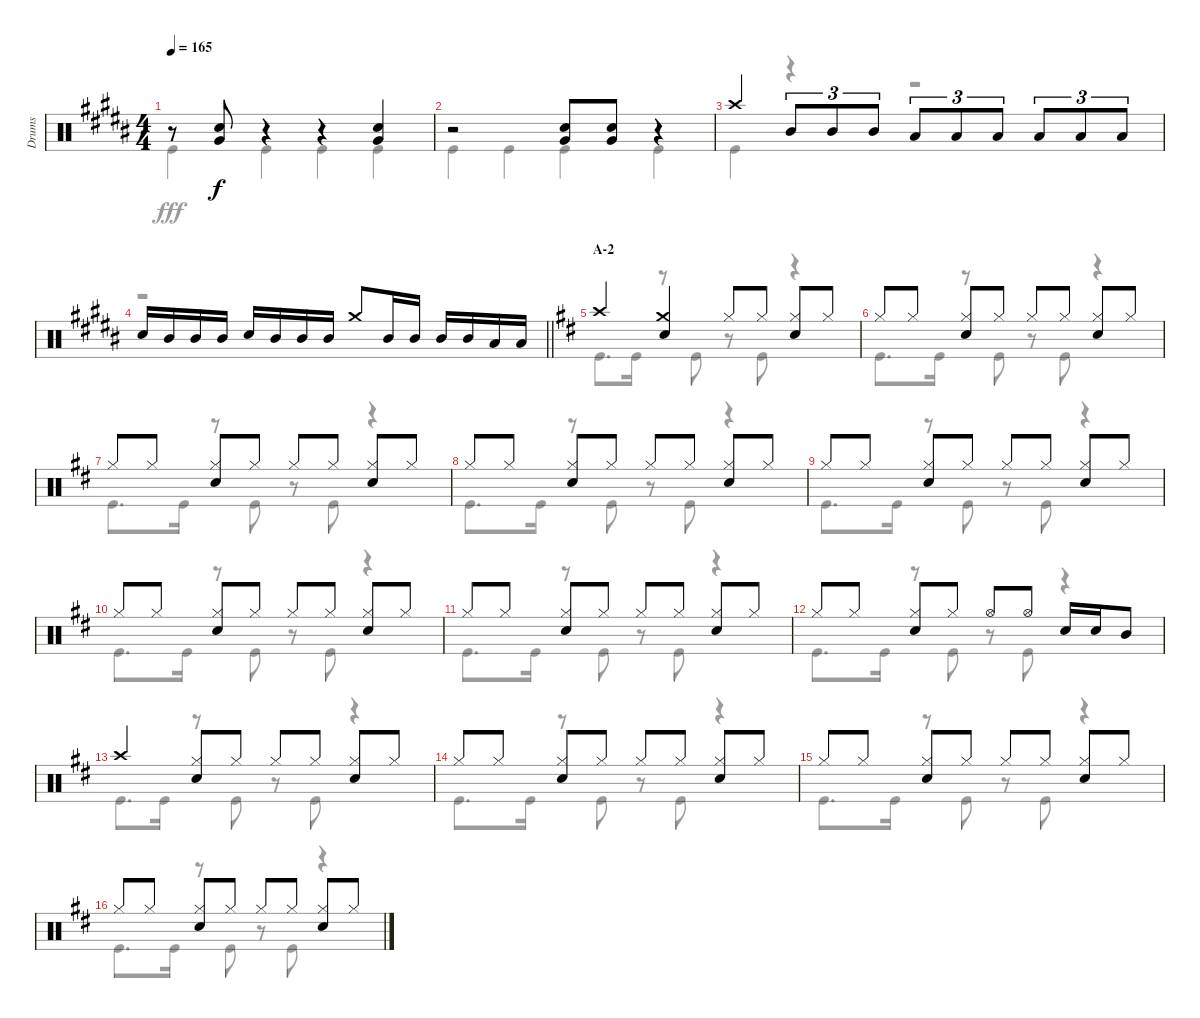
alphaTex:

\track ("Drums" "Drums") {instrument percussion}
\staff {score}
\articulation defaults
\voice
\ts (4 4)
\tempo 165
\clef neutral
\ks b
r.8{dy f} ("Snare (hit) 2" "Very Low Tom (hit)").8 r.4 r.4 ("Snare (hit) 2" "Very Low Tom (hit)").4 |
r.2 ("Snare (hit) 2" "Very Low Tom (hit)").8 ("Snare (hit) 2" "Very Low Tom (hit)").8 r.4 |
"Crash high (hit)".4 "Mid Tom (hit)".8{tu (3 2)} "Mid Tom (hit)".8{tu (3 2)} "Mid Tom (hit)".8{tu (3 2)} "Low Tom (hit)".8{tu (3 2)} "Low Tom (hit)".8{tu (3 2)} "Low Tom (hit)".8{tu (3 2)} "Low Tom (hit)".8{tu (3 2)} "Low Tom (hit)".8{tu (3 2)} "Low Tom (hit)".8{tu (3 2)} |
\barLineRight lightlight "Snare (hit) 2".16 "Mid Tom (hit)".16 "Mid Tom (hit)".16 "Mid Tom (hit)".16 "Snare (hit) 2".16 "Mid Tom (hit)".16 "Mid Tom (hit)".16 "Mid Tom (hit)".16 "Crash medium (hit)".8 "Mid Tom (hit)".16 "Mid Tom (hit)".16 "Mid Tom (hit)".16 "Mid Tom (hit)".16 "Low Tom (hit)".16 "Low Tom (hit)".16
|
\section ("" "A-2")
\ks d "Crash high (hit)".4
("Crash medium (hit)" "Snare (hit) 2").4 "Hi-Hat (closed)".8 "Hi-Hat (closed)".8 ("Hi-Hat (closed)" "Snare (hit) 2").8 "Hi-Hat (closed)".8 |
"Hi-Hat (closed)".8 "Hi-Hat (closed)".8 ("Hi-Hat (closed)" "Snare (hit) 2").8 "Hi-Hat (closed)".8 "Hi-Hat (closed)".8 "Hi-Hat (closed)".8 ("Hi-Hat (closed)" "Snare (hit) 2").8 "Hi-Hat (closed)".8 |
"Hi-Hat (closed)".8 "Hi-Hat (closed)".8 ("Hi-Hat (closed)" "Snare (hit) 2").8 "Hi-Hat (closed)".8 "Hi-Hat (closed)".8 "Hi-Hat (closed)".8 ("Hi-Hat (closed)" "Snare (hit) 2").8 "Hi-Hat (closed)".8 |
"Hi-Hat (closed)".8 "Hi-Hat (closed)".8 ("Hi-Hat (closed)" "Snare (hit) 2").8 "Hi-Hat (closed)".8 "Hi-Hat (closed)".8 "Hi-Hat (closed)".8 ("Hi-Hat (closed)" "Snare (hit) 2").8 "Hi-Hat (closed)".8 |
"Hi-Hat (closed)".8 "Hi-Hat (closed)".8 ("Hi-Hat (closed)" "Snare (hit) 2").8 "Hi-Hat (closed)".8 "Hi-Hat (closed)".8 "Hi-Hat (closed)".8 ("Hi-Hat (closed)" "Snare (hit) 2").8 "Hi-Hat (closed)".8 |
"Hi-Hat (closed)".8 "Hi-Hat (closed)".8 ("Hi-Hat (closed)" "Snare (hit) 2").8 "Hi-Hat (closed)".8 "Hi-Hat (closed)".8 "Hi-Hat (closed)".8 ("Hi-Hat (closed)" "Snare (hit) 2").8 "Hi-Hat (closed)".8 |
"Hi-Hat (closed)".8 "Hi-Hat (closed)".8 ("Hi-Hat (closed)" "Snare (hit) 2").8 "Hi-Hat (closed)".8 "Hi-Hat (closed)".8 "Hi-Hat (closed)".8 ("Hi-Hat (closed)" "Snare (hit) 2").8 "Hi-Hat (closed)".8 |
"Hi-Hat (closed)".8 "Hi-Hat (closed)".8 ("Hi-Hat (closed)" "Snare (hit) 2").8 "Hi-Hat (closed)".8 "Hi-Hat (open)".8 "Hi-Hat (open)".8 "Snare (hit) 2".16 "Snare (hit) 2".16 "Mid Tom (hit)".8 |
"Crash high (hit)".4 ("Hi-Hat (closed)" "Snare (hit) 2").8 "Hi-Hat (closed)".8 "Hi-Hat (closed)".8 "Hi-Hat (closed)".8 ("Hi-Hat (closed)" "Snare (hit) 2").8 "Hi-Hat (closed)".8 |
"Hi-Hat (closed)".8 "Hi-Hat (closed)".8 ("Hi-Hat (closed)" "Snare (hit) 2").8 "Hi-Hat (closed)".8 "Hi-Hat (closed)".8 "Hi-Hat (closed)".8 ("Hi-Hat (closed)" "Snare (hit) 2").8 "Hi-Hat (closed)".8 |
"Hi-Hat (closed)".8 "Hi-Hat (closed)".8 ("Hi-Hat (closed)" "Snare (hit) 2").8 "Hi-Hat (closed)".8 "Hi-Hat (closed)".8 "Hi-Hat (closed)".8 ("Hi-Hat (closed)" "Snare (hit) 2").8 "Hi-Hat (closed)".8 |
"Hi-Hat (closed)".8 "Hi-Hat (closed)".8 ("Hi-Hat (closed)" "Snare (hit) 2").8 "Hi-Hat (closed)".8 "Hi-Hat (closed)".8 "Hi-Hat (closed)".8 ("Hi-Hat (closed)" "Snare (hit) 2").8 "Hi-Hat (closed)".8
\voice
\clef neutral
\ottava regular
\simile none
\ks b "Kick (hit)".4{dy fff} "Kick (hit)".4 "Kick (hit)".4 "Kick (hit)".4
|
"Kick (hit)".4 "Kick (hit)".4 "Kick (hit)".4 "Kick (hit)".4 |
"Kick (hit)".4 r.4 r.2 |
\barLineRight lightlight
r.1 |
\ks d "Kick (hit)".8{d} "Kick (hit)".16
r.8 "Kick (hit)".8 r.8 "Kick (hit)".8 r.4 |
"Kick (hit)".8{d} "Kick (hit)".16 r.8 "Kick (hit)".8 r.8 "Kick (hit)".8 r.4 |
"Kick (hit)".8{d} "Kick (hit)".16 r.8 "Kick (hit)".8 r.8 "Kick (hit)".8 r.4 |
"Kick (hit)".8{d} "Kick (hit)".16 r.8 "Kick (hit)".8 r.8 "Kick (hit)".8 r.4 |
"Kick (hit)".8{d} "Kick (hit)".16 r.8 "Kick (hit)".8 r.8 "Kick (hit)".8 r.4 |
"Kick (hit)".8{d} "Kick (hit)".16 r.8 "Kick (hit)".8 r.8 "Kick (hit)".8 r.4 |
"Kick (hit)".8{d} "Kick (hit)".16 r.8 "Kick (hit)".8 r.8 "Kick (hit)".8 r.4 |
"Kick (hit)".8{d} "Kick (hit)".16 r.8 "Kick (hit)".8 r.8 "Kick (hit)".8 r.4 |
"Kick (hit)".8{d} "Kick (hit)".16 r.8 "Kick (hit)".8 r.8 "Kick (hit)".8 r.4 |
"Kick (hit)".8{d} "Kick (hit)".16 r.8 "Kick (hit)".8 r.8 "Kick (hit)".8 r.4 |
"Kick (hit)".8{d} "Kick (hit)".16 r.8 "Kick (hit)".8 r.8 "Kick (hit)".8 r.4 |
"Kick (hit)".8{d} "Kick (hit)".16 r.8 "Kick (hit)".8 r.8 "Kick (hit)".8 r.4
